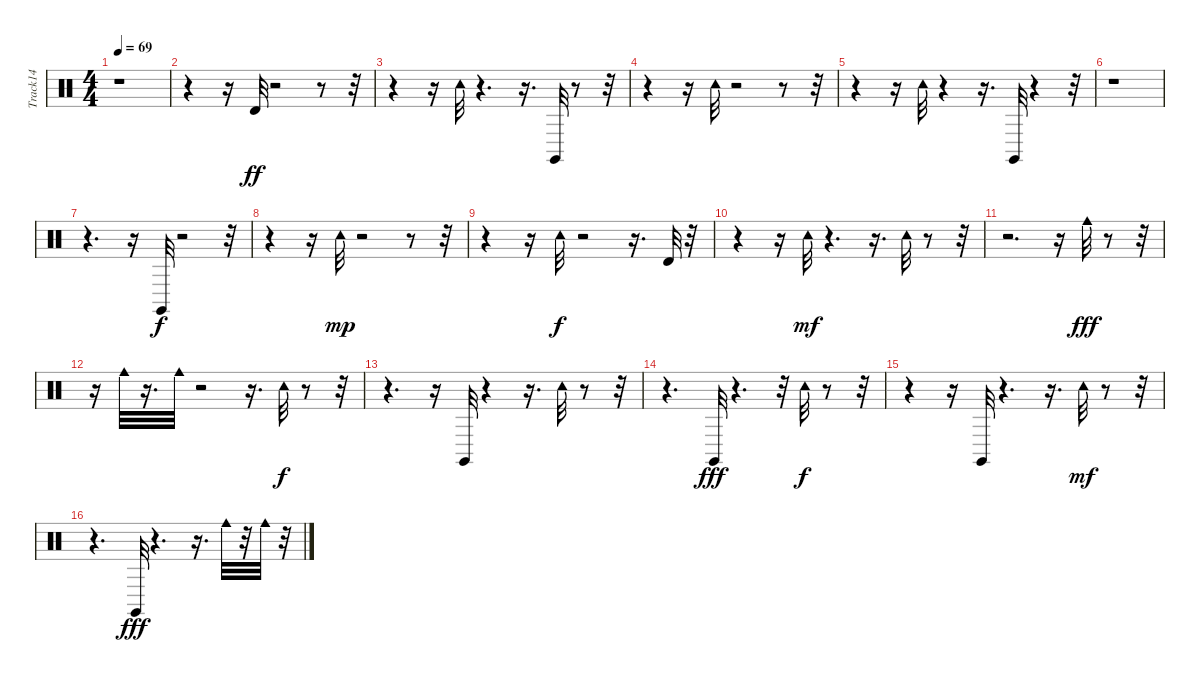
\track ("Track14" "Track14") {instrument percussion}
\staff {score}
\articulation defaults
\ts (4 4)
\tempo 69
\clef neutral
\ks c
r.1{dy mf} |
r.4 r.16 "Timbale high (hit)".32{dy ff} r.2 r.8 r.32 |
r.4 r.16 "Tambourine (hit)".32 r.4{d} r.16{d} "Claves (hit)".32 r.8 r.32 |
r.4 r.16 "Tambourine (hit)".32 r.2 r.8 r.32 |
r.4 r.16 "Tambourine (hit)".32 r.4 r.16{d} "Claves (hit)".32 r.4 r.32 |
r.1 |
r.4{d} r.16 "Claves (hit)".32{dy f} r.2 r.32 |
r.4 r.16 "Tambourine (hit)".32{dy mp} r.2 r.8 r.32 |
r.4 r.16 "Tambourine (hit)".32{dy f} r.2 r.16{d} "Timbale high (hit)".32 r.32 |
r.4 r.16 "Tambourine (hit)".32{dy mf} r.4{d} r.16{d} "Tambourine (hit)".32 r.8 r.32 |
r.2{d} r.16 "Cowbell medium (hit)".32{dy fff} r.8 r.32 |
r.16 "Cowbell medium (hit)".32 r.16{d} "Cowbell medium (hit)".32 r.2 r.16{d} "Tambourine (hit)".32{dy f} r.8 r.32 |
r.4{d} r.16 "Claves (hit)".32 r.4 r.16{d} "Tambourine (hit)".32 r.8 r.32 |
r.4{d} "Claves (hit)".32{dy fff} r.4{d} r.32 "Tambourine (hit)".32{dy f} r.8 r.32 |
r.4 r.16 "Claves (hit)".32 r.4{d} r.16{d} "Tambourine (hit)".32{dy mf} r.8 r.32 |
r.4{d} "Claves (hit)".32{dy fff} r.4{d} r.16{d} "Cowbell medium (hit)".32 r.32 "Cowbell medium (hit)".32 r.32
